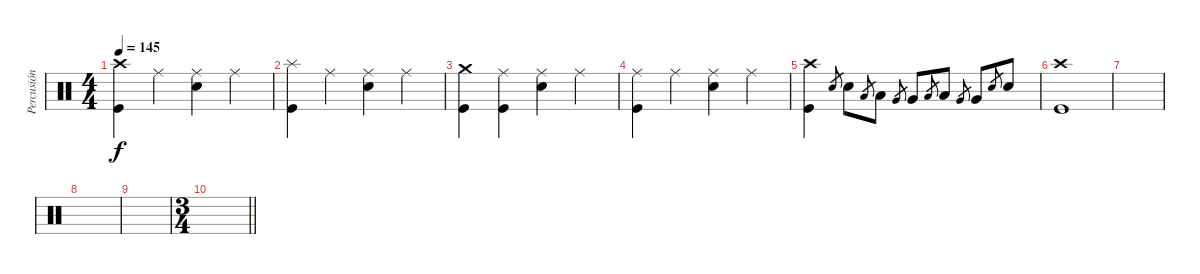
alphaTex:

\track ("Percusión" "Percusión") {instrument percussion}
\staff {score}
\articulation defaults
\ts (4 4)
\tempo 145
\clef neutral
\ks c
("Crash high (hit)" "Kick (hit)").4{dy f} "Ride (middle)".4 ("Ride (middle)" "Electric Snare (hit)").4 "Ride (middle)".4 |
("Splash (hit)" "Kick (hit)").4 "Ride (middle)".4 ("Ride (middle)" "Electric Snare (hit)").4 "Ride (middle)".4 |
("Crash medium (hit)" "Kick (hit)").4 ("Ride (middle)" "Kick (hit)").4 ("Ride (middle)" "Electric Snare (hit)").4 "Ride (middle)".4 |
("Ride (middle)" "Kick (hit)").4 "Ride (middle)".4 ("Ride (middle)" "Electric Snare (hit)").4 "Ride (middle)".4 |
("Crash high (hit)" "Kick (hit)").4 "Electric Snare (hit)".8{gr} "Electric Snare (hit)".8 "Low Tom (hit)".8{gr} "Low Tom (hit)".8 "Very Low Tom (hit)".8{gr} "Very Low Tom (hit)".8 "Low Floor Tom (hit)".8{gr} "Low Floor Tom (hit)".8 "Very Low Tom (hit)".8{gr} "Very Low Tom (hit)".8 "Electric Snare (hit)".8{gr} "Electric Snare (hit)".8 |
("Crash high (hit)" "Kick (hit)").1 |
|
|
|
\ts (3 4)
\barLineRight lightlight
